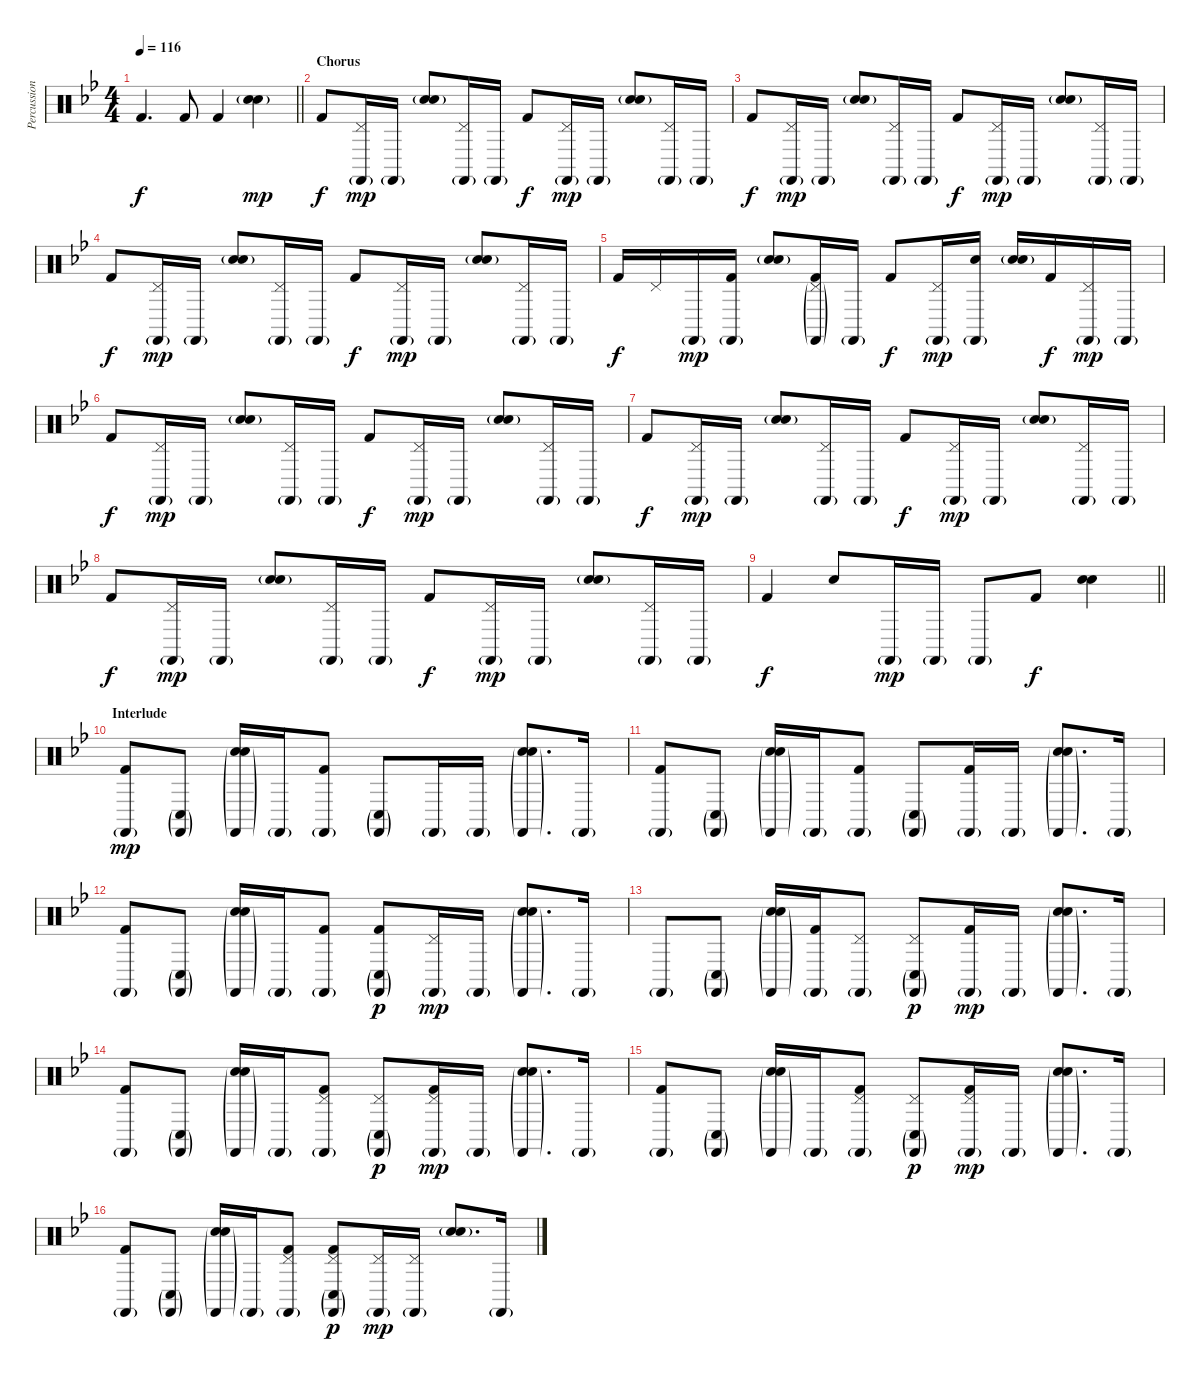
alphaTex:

\track ("Percussion" "Percussion") {instrument percussion}
\staff {score}
\articulation defaults
\ts (4 4)
\tempo 116
\clef neutral
\barLineRight lightlight
\ks gminor "Kick (hit) 2".4{d dy f} "Kick (hit) 2".8 "Kick (hit) 2".4
("Snare (hit) 2" "Hand Clap (hit)"{g}).4{dy mp} |
\section ("" "Chorus")
"Kick (hit) 2".8{dy f} ("Castanets (hit)"{g} "Pedal Hi-Hat (hit)").16{dy mp} "Castanets (hit)"{g}.16 ("Snare (hit) 2" "Hand Clap (hit)"{g}).8 ("Castanets (hit)"{g} "Pedal Hi-Hat (hit)").16 "Castanets (hit)"{g}.16 "Kick (hit) 2".8{dy f} ("Castanets (hit)"{g} "Pedal Hi-Hat (hit)").16{dy mp} "Castanets (hit)"{g}.16 ("Snare (hit) 2" "Hand Clap (hit)"{g}).8 ("Castanets (hit)"{g} "Pedal Hi-Hat (hit)").16 "Castanets (hit)"{g}.16 |
"Kick (hit) 2".8{dy f} ("Castanets (hit)"{g} "Pedal Hi-Hat (hit)").16{dy mp} "Castanets (hit)"{g}.16 ("Snare (hit) 2" "Hand Clap (hit)"{g}).8 ("Castanets (hit)"{g} "Pedal Hi-Hat (hit)").16 "Castanets (hit)"{g}.16 "Kick (hit) 2".8{dy f} ("Castanets (hit)"{g} "Pedal Hi-Hat (hit)").16{dy mp} "Castanets (hit)"{g}.16 ("Snare (hit) 2" "Hand Clap (hit)"{g}).8 ("Castanets (hit)"{g} "Pedal Hi-Hat (hit)").16 "Castanets (hit)"{g}.16 |
"Kick (hit) 2".8{dy f} ("Castanets (hit)"{g} "Pedal Hi-Hat (hit)").16{dy mp} "Castanets (hit)"{g}.16 ("Snare (hit) 2" "Hand Clap (hit)"{g}).8 ("Castanets (hit)"{g} "Pedal Hi-Hat (hit)").16 "Castanets (hit)"{g}.16 "Kick (hit) 2".8{dy f} ("Castanets (hit)"{g} "Pedal Hi-Hat (hit)").16{dy mp} "Castanets (hit)"{g}.16 ("Snare (hit) 2" "Hand Clap (hit)"{g}).8 ("Castanets (hit)"{g} "Pedal Hi-Hat (hit)").16 "Castanets (hit)"{g}.16 |
"Kick (hit) 2".16{dy f} "Pedal Hi-Hat (hit)".16 "Castanets (hit)"{g}.16{dy mp} ("Castanets (hit)"{g} "Kick (hit) 2").16 ("Snare (hit) 2" "Hand Clap (hit)"{g}).8 ("Castanets (hit)"{g} "Pedal Hi-Hat (hit)"{g} "Kick (hit) 2").16 "Castanets (hit)"{g}.16 "Kick (hit) 2".8{dy f} ("Castanets (hit)"{g} "Pedal Hi-Hat (hit)").16{dy mp} ("Castanets (hit)"{g} "Snare (hit) 2").16 ("Snare (hit) 2" "Hand Clap (hit)"{g}).16 "Kick (hit) 2".16{dy f} ("Castanets (hit)"{g} "Pedal Hi-Hat (hit)").16{dy mp} "Castanets (hit)"{g}.16 |
"Kick (hit) 2".8{dy f} ("Castanets (hit)"{g} "Pedal Hi-Hat (hit)").16{dy mp} "Castanets (hit)"{g}.16 ("Snare (hit) 2" "Hand Clap (hit)"{g}).8 ("Castanets (hit)"{g} "Pedal Hi-Hat (hit)").16 "Castanets (hit)"{g}.16 "Kick (hit) 2".8{dy f} ("Castanets (hit)"{g} "Pedal Hi-Hat (hit)").16{dy mp} "Castanets (hit)"{g}.16 ("Snare (hit) 2" "Hand Clap (hit)"{g}).8 ("Castanets (hit)"{g} "Pedal Hi-Hat (hit)").16 "Castanets (hit)"{g}.16 |
"Kick (hit) 2".8{dy f} ("Castanets (hit)"{g} "Pedal Hi-Hat (hit)").16{dy mp} "Castanets (hit)"{g}.16 ("Snare (hit) 2" "Hand Clap (hit)"{g}).8 ("Castanets (hit)"{g} "Pedal Hi-Hat (hit)").16 "Castanets (hit)"{g}.16 "Kick (hit) 2".8{dy f} ("Castanets (hit)"{g} "Pedal Hi-Hat (hit)").16{dy mp} "Castanets (hit)"{g}.16 ("Snare (hit) 2" "Hand Clap (hit)"{g}).8 ("Castanets (hit)"{g} "Pedal Hi-Hat (hit)").16 "Castanets (hit)"{g}.16 |
"Kick (hit) 2".8{dy f} ("Castanets (hit)"{g} "Pedal Hi-Hat (hit)").16{dy mp} "Castanets (hit)"{g}.16 ("Snare (hit) 2" "Hand Clap (hit)"{g}).8 ("Castanets (hit)"{g} "Pedal Hi-Hat (hit)").16 "Castanets (hit)"{g}.16 "Kick (hit) 2".8{dy f} ("Castanets (hit)"{g} "Pedal Hi-Hat (hit)").16{dy mp} "Castanets (hit)"{g}.16 ("Snare (hit) 2" "Hand Clap (hit)"{g}).8 ("Castanets (hit)"{g} "Pedal Hi-Hat (hit)").16 "Castanets (hit)"{g}.16 |
\barLineRight lightlight "Kick (hit) 2".4{dy f} "Hand Clap (hit)".8 "Castanets (hit)"{g}.16{dy mp} "Castanets (hit)"{g}.16 "Castanets (hit)"{g}.8 "Kick (hit) 2".8{dy f}
("Snare (hit) 2" "Hand Clap (hit)").4 |
\section ("" "Interlude")
("Castanets (hit)"{g} "Kick (hit) 2").8{dy mp} ("Castanets (hit)"{g} "Conga low (hit)"{g}).8 ("Castanets (hit)"{g} "Snare (hit) 2" "Hand Clap (hit)"{g}).16 "Castanets (hit)"{g}.16 ("Castanets (hit)"{g} "Kick (hit) 2").8 ("Castanets (hit)"{g} "Conga low (hit)"{g}).8 "Castanets (hit)"{g}.16 "Castanets (hit)"{g}.16 ("Castanets (hit)"{g} "Snare (hit) 2" "Hand Clap (hit)"{g}).8{d} "Castanets (hit)"{g}.16 |
("Castanets (hit)"{g} "Kick (hit) 2").8 ("Castanets (hit)"{g} "Conga low (hit)"{g}).8 ("Castanets (hit)"{g} "Snare (hit) 2" "Hand Clap (hit)"{g}).16 "Castanets (hit)"{g}.16 ("Castanets (hit)"{g} "Kick (hit) 2").8 ("Castanets (hit)"{g} "Conga low (hit)"{g}).8 ("Castanets (hit)"{g} "Kick (hit) 2").16 "Castanets (hit)"{g}.16 ("Castanets (hit)"{g} "Snare (hit) 2" "Hand Clap (hit)"{g}).8{d} "Castanets (hit)"{g}.16 |
("Castanets (hit)"{g} "Kick (hit) 2").8 ("Castanets (hit)"{g} "Conga low (hit)"{g}).8 ("Castanets (hit)"{g} "Snare (hit) 2" "Hand Clap (hit)"{g}).16 "Castanets (hit)"{g}.16 ("Castanets (hit)"{g} "Kick (hit) 2").8 ("Castanets (hit)"{g} "Conga low (hit)"{g} "Kick (hit) 2").8{dy p} ("Castanets (hit)"{g} "Pedal Hi-Hat (hit)").16{dy mp} "Castanets (hit)"{g}.16 ("Castanets (hit)"{g} "Snare (hit) 2" "Hand Clap (hit)"{g}).8{d} "Castanets (hit)"{g}.16 |
"Castanets (hit)"{g}.8 ("Castanets (hit)"{g} "Conga low (hit)"{g}).8 ("Castanets (hit)"{g} "Snare (hit) 2" "Hand Clap (hit)"{g}).16 ("Castanets (hit)"{g} "Kick (hit) 2").16 ("Castanets (hit)"{g} "Pedal Hi-Hat (hit)").8 ("Castanets (hit)"{g} "Pedal Hi-Hat (hit)" "Conga low (hit)"{g}).8{dy p} ("Castanets (hit)"{g} "Kick (hit) 2").16{dy mp} "Castanets (hit)"{g}.16 ("Castanets (hit)"{g} "Snare (hit) 2" "Hand Clap (hit)"{g}).8{d} "Castanets (hit)"{g}.16 |
("Castanets (hit)"{g} "Kick (hit) 2").8 ("Castanets (hit)"{g} "Conga low (hit)"{g}).8 ("Castanets (hit)"{g} "Snare (hit) 2" "Hand Clap (hit)"{g}).16 "Castanets (hit)"{g}.16 ("Castanets (hit)"{g} "Pedal Hi-Hat (hit)" "Kick (hit) 2").8 ("Castanets (hit)"{g} "Pedal Hi-Hat (hit)" "Conga low (hit)"{g}).8{dy p} ("Castanets (hit)"{g} "Pedal Hi-Hat (hit)" "Kick (hit) 2").16{dy mp} "Castanets (hit)"{g}.16 ("Castanets (hit)"{g} "Snare (hit) 2" "Hand Clap (hit)"{g}).8{d} "Castanets (hit)"{g}.16 |
("Castanets (hit)"{g} "Kick (hit) 2").8 ("Castanets (hit)"{g} "Conga low (hit)"{g}).8 ("Castanets (hit)"{g} "Snare (hit) 2" "Hand Clap (hit)"{g}).16 "Castanets (hit)"{g}.16 ("Castanets (hit)"{g} "Pedal Hi-Hat (hit)" "Kick (hit) 2").8 ("Castanets (hit)"{g} "Pedal Hi-Hat (hit)" "Conga low (hit)"{g}).8{dy p} ("Castanets (hit)"{g} "Pedal Hi-Hat (hit)" "Kick (hit) 2").16{dy mp} "Castanets (hit)"{g}.16 ("Castanets (hit)"{g} "Snare (hit) 2" "Hand Clap (hit)"{g}).8{d} "Castanets (hit)"{g}.16 |
("Castanets (hit)"{g} "Kick (hit) 2").8 ("Castanets (hit)"{g} "Conga low (hit)"{g}).8 ("Castanets (hit)"{g} "Snare (hit) 2" "Hand Clap (hit)"{g}).16 "Castanets (hit)"{g}.16 ("Castanets (hit)"{g} "Pedal Hi-Hat (hit)" "Kick (hit) 2").8 ("Castanets (hit)"{g} "Pedal Hi-Hat (hit)" "Conga low (hit)"{g} "Kick (hit) 2").8{dy p} ("Castanets (hit)"{g} "Pedal Hi-Hat (hit)").16{dy mp} ("Castanets (hit)"{g} "Pedal Hi-Hat (hit)").16 ("Snare (hit) 2" "Hand Clap (hit)"{g}).8{d} "Castanets (hit)"{g}.16
